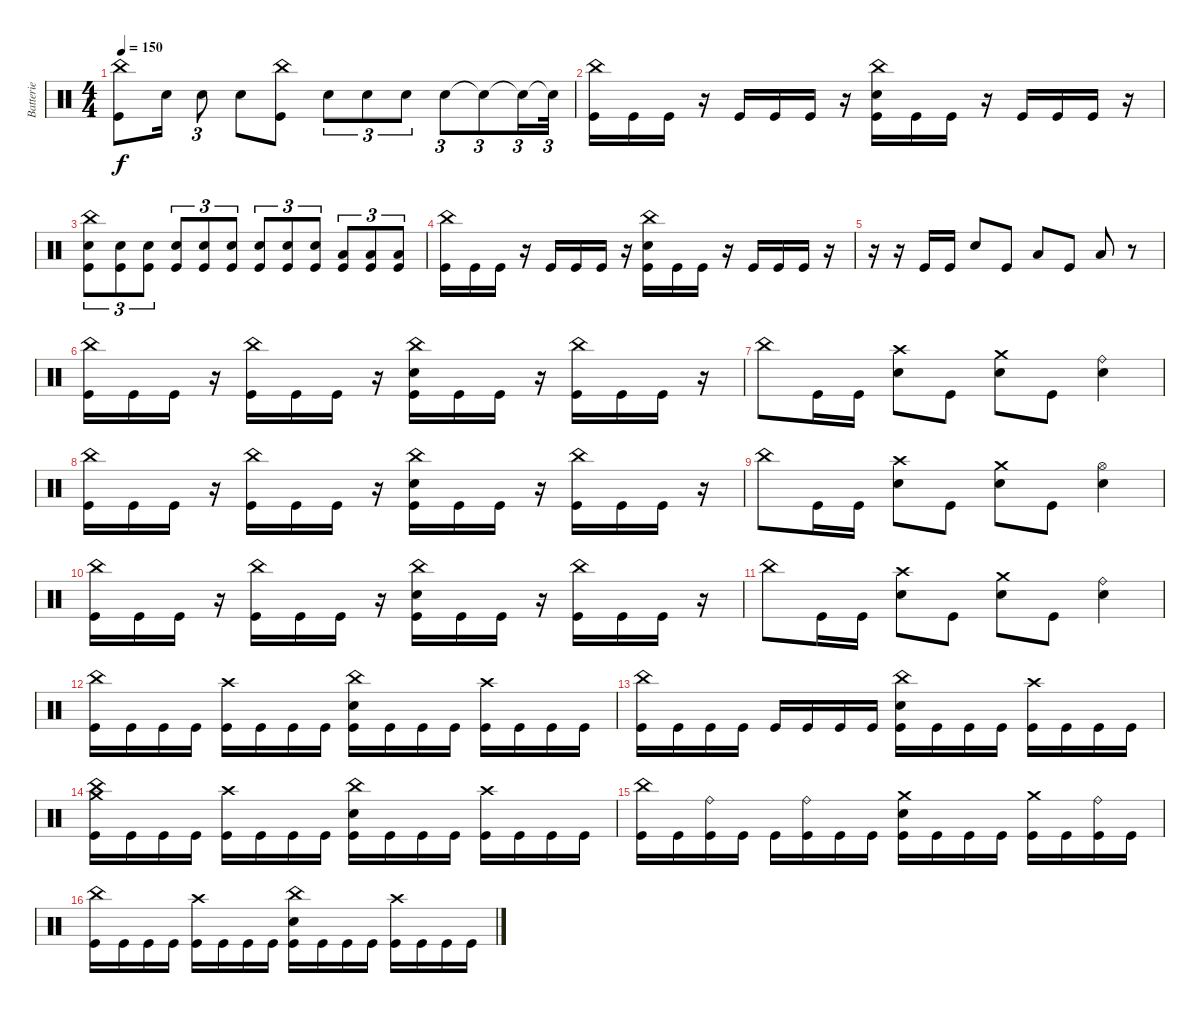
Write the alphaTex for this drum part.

\track ("Batterie" "Batterie") {instrument percussion}
\staff {score}
\articulation defaults
\ts (4 4)
\tempo 150
\clef neutral
\ks c
("China (hit)" "Kick (hit)").8{dy f} "Electric Snare (hit)".16 "Electric Snare (hit)".8{tu (3 2)} "Electric Snare (hit)".8 ("China (hit)" "Kick (hit)").8 "Electric Snare (hit)".8{tu (3 2)} "Electric Snare (hit)".8{tu (3 2)} "Electric Snare (hit)".8{tu (3 2)} "Electric Snare (hit)".8{tu (3 2)} "Snare (hit)"{t}.8{tu (3 2)} "Snare (hit)"{t}.16{tu (3 2)} "Snare (hit)"{t}.32{tu (3 2)} |
("China (hit)" "Kick (hit)").16 "Kick (hit)".16 "Kick (hit)".16 r.16 "Kick (hit)".16 "Kick (hit)".16 "Kick (hit)".16 r.16 ("China (hit)" "Electric Snare (hit)" "Kick (hit)").16 "Kick (hit)".16 "Kick (hit)".16 r.16 "Kick (hit)".16 "Kick (hit)".16 "Kick (hit)".16 r.16 |
("China (hit)" "Electric Snare (hit)" "Kick (hit)").8{tu (3 2)} ("Electric Snare (hit)" "Kick (hit)").8{tu (3 2)} ("Electric Snare (hit)" "Kick (hit)").8{tu (3 2)} ("Electric Snare (hit)" "Kick (hit)").8{tu (3 2)} ("Electric Snare (hit)" "Kick (hit)").8{tu (3 2)} ("Electric Snare (hit)" "Kick (hit)").8{tu (3 2)} ("Electric Snare (hit)" "Kick (hit)").8{tu (3 2)} ("Electric Snare (hit)" "Kick (hit)").8{tu (3 2)} ("Electric Snare (hit)" "Kick (hit)").8{tu (3 2)} ("Low Floor Tom (hit)" "Kick (hit)").8{tu (3 2)} ("Low Floor Tom (hit)" "Kick (hit)").8{tu (3 2)} ("Low Floor Tom (hit)" "Kick (hit)").8{tu (3 2)} |
("China (hit)" "Kick (hit)").16 "Kick (hit)".16 "Kick (hit)".16 r.16 "Kick (hit)".16 "Kick (hit)".16 "Kick (hit)".16 r.16 ("China (hit)" "Electric Snare (hit)" "Kick (hit)").16 "Kick (hit)".16 "Kick (hit)".16 r.16 "Kick (hit)".16 "Kick (hit)".16 "Kick (hit)".16 r.16 |
r.16 r.16 "Kick (hit)".16 "Kick (hit)".16 "Electric Snare (hit)".8 "Kick (hit)".8 "Low Tom (hit)".8 "Kick (hit)".8 "Low Floor Tom (hit)".8 r.8 |
("China (hit)" "Kick (hit)").16 "Kick (hit)".16 "Kick (hit)".16 r.16 ("China (hit)" "Kick (hit)").16 "Kick (hit)".16 "Kick (hit)".16 r.16 ("China (hit)" "Electric Snare (hit)" "Kick (hit)").16 "Kick (hit)".16 "Kick (hit)".16 r.16 ("China (hit)" "Kick (hit)").16 "Kick (hit)".16 "Kick (hit)".16 r.16 |
"China (hit)".8 "Kick (hit)".16 "Kick (hit)".16 ("Crash high (hit)" "Electric Snare (hit)").8 "Kick (hit)".8 ("Crash medium (hit)" "Electric Snare (hit)").8 "Kick (hit)".8 ("Ride (bell)" "Electric Snare (hit)").4 |
("China (hit)" "Kick (hit)").16 "Kick (hit)".16 "Kick (hit)".16 r.16 ("China (hit)" "Kick (hit)").16 "Kick (hit)".16 "Kick (hit)".16 r.16 ("China (hit)" "Electric Snare (hit)" "Kick (hit)").16 "Kick (hit)".16 "Kick (hit)".16 r.16 ("China (hit)" "Kick (hit)").16 "Kick (hit)".16 "Kick (hit)".16 r.16 |
"China (hit)".8 "Kick (hit)".16 "Kick (hit)".16 ("Crash high (hit)" "Electric Snare (hit)").8 "Kick (hit)".8 ("Crash medium (hit)" "Electric Snare (hit)").8 "Kick (hit)".8 ("Hi-Hat (open)" "Electric Snare (hit)").4 |
("China (hit)" "Kick (hit)").16 "Kick (hit)".16 "Kick (hit)".16 r.16 ("China (hit)" "Kick (hit)").16 "Kick (hit)".16 "Kick (hit)".16 r.16 ("China (hit)" "Electric Snare (hit)" "Kick (hit)").16 "Kick (hit)".16 "Kick (hit)".16 r.16 ("China (hit)" "Kick (hit)").16 "Kick (hit)".16 "Kick (hit)".16 r.16 |
"China (hit)".8 "Kick (hit)".16 "Kick (hit)".16 ("Crash high (hit)" "Electric Snare (hit)").8 "Kick (hit)".8 ("Crash medium (hit)" "Electric Snare (hit)").8 "Kick (hit)".8 ("Ride (bell)" "Electric Snare (hit)").4 |
("China (hit)" "Kick (hit)").16 "Kick (hit)".16 "Kick (hit)".16 "Kick (hit)".16 ("Crash high (hit)" "Kick (hit)").16 "Kick (hit)".16 "Kick (hit)".16 "Kick (hit)".16 ("China (hit)" "Electric Snare (hit)" "Kick (hit)").16 "Kick (hit)".16 "Kick (hit)".16 "Kick (hit)".16 ("Crash high (hit)" "Kick (hit)").16 "Kick (hit)".16 "Kick (hit)".16 "Kick (hit)".16 |
("China (hit)" "Kick (hit)").16 "Kick (hit)".16 "Kick (hit)".16 "Kick (hit)".16 "Kick (hit)".16 "Kick (hit)".16 "Kick (hit)".16 "Kick (hit)".16 ("China (hit)" "Electric Snare (hit)" "Kick (hit)").16 "Kick (hit)".16 "Kick (hit)".16 "Kick (hit)".16 ("Crash high (hit)" "Kick (hit)").16 "Kick (hit)".16 "Kick (hit)".16 "Kick (hit)".16 |
("China (hit)" "Crash medium (hit)" "Kick (hit)").16 "Kick (hit)".16 "Kick (hit)".16 "Kick (hit)".16 ("Crash high (hit)" "Kick (hit)").16 "Kick (hit)".16 "Kick (hit)".16 "Kick (hit)".16 ("China (hit)" "Electric Snare (hit)" "Kick (hit)").16 "Kick (hit)".16 "Kick (hit)".16 "Kick (hit)".16 ("Crash high (hit)" "Kick (hit)").16 "Kick (hit)".16 "Kick (hit)".16 "Kick (hit)".16 |
("China (hit)" "Kick (hit)").16 "Kick (hit)".16 ("Ride (bell)" "Kick (hit)").16 "Kick (hit)".16 "Kick (hit)".16 ("Ride (bell)" "Kick (hit)").16 "Kick (hit)".16 "Kick (hit)".16 ("Crash medium (hit)" "Electric Snare (hit)" "Kick (hit)").16 "Kick (hit)".16 "Kick (hit)".16 "Kick (hit)".16 ("Crash medium (hit)" "Kick (hit)").16 "Kick (hit)".16 ("Ride (bell)" "Kick (hit)").16 "Kick (hit)".16 |
("China (hit)" "Kick (hit)").16 "Kick (hit)".16 "Kick (hit)".16 "Kick (hit)".16 ("Crash high (hit)" "Kick (hit)").16 "Kick (hit)".16 "Kick (hit)".16 "Kick (hit)".16 ("China (hit)" "Electric Snare (hit)" "Kick (hit)").16 "Kick (hit)".16 "Kick (hit)".16 "Kick (hit)".16 ("Crash high (hit)" "Kick (hit)").16 "Kick (hit)".16 "Kick (hit)".16 "Kick (hit)".16
